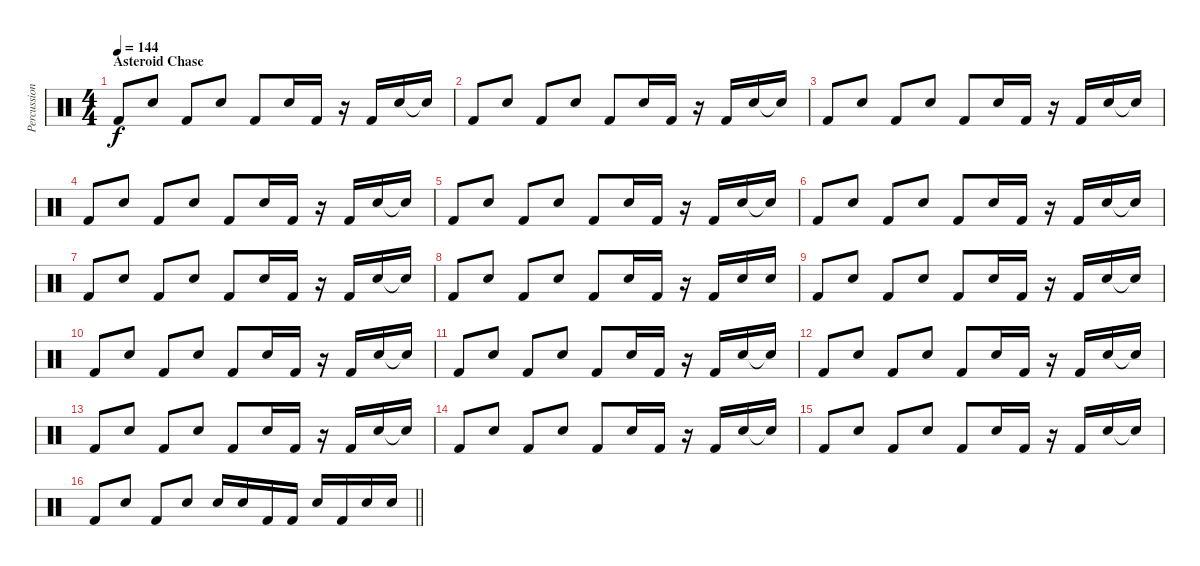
\track ("Percussions" "Percussion") {instrument percussion}
\staff {score}
\articulation defaults
\ts (4 4)
\section ("" "Asteroid Chase")
\tempo 144
\clef neutral
\ks c "Kick (hit) 2".8{dy f} "Electric Snare (hit)".8 "Kick (hit) 2".8 "Electric Snare (hit)".8 "Kick (hit) 2".8 "Electric Snare (hit)".16 "Kick (hit) 2".16
r.16 "Kick (hit) 2".16 "Electric Snare (hit)".16 "Snare (hit)"{t}.16 |
"Kick (hit) 2".8 "Electric Snare (hit)".8 "Kick (hit) 2".8 "Electric Snare (hit)".8 "Kick (hit) 2".8 "Electric Snare (hit)".16 "Kick (hit) 2".16 r.16 "Kick (hit) 2".16 "Electric Snare (hit)".16 "Snare (hit)"{t}.16 |
"Kick (hit) 2".8 "Electric Snare (hit)".8 "Kick (hit) 2".8 "Electric Snare (hit)".8 "Kick (hit) 2".8 "Electric Snare (hit)".16 "Kick (hit) 2".16 r.16 "Kick (hit) 2".16 "Electric Snare (hit)".16 "Snare (hit)"{t}.16 |
"Kick (hit) 2".8 "Electric Snare (hit)".8 "Kick (hit) 2".8 "Electric Snare (hit)".8 "Kick (hit) 2".8 "Electric Snare (hit)".16 "Kick (hit) 2".16 r.16 "Kick (hit) 2".16 "Electric Snare (hit)".16 "Snare (hit)"{t}.16 |
"Kick (hit) 2".8 "Electric Snare (hit)".8 "Kick (hit) 2".8 "Electric Snare (hit)".8 "Kick (hit) 2".8 "Electric Snare (hit)".16 "Kick (hit) 2".16 r.16 "Kick (hit) 2".16 "Electric Snare (hit)".16 "Snare (hit)"{t}.16 |
"Kick (hit) 2".8 "Electric Snare (hit)".8 "Kick (hit) 2".8 "Electric Snare (hit)".8 "Kick (hit) 2".8 "Electric Snare (hit)".16 "Kick (hit) 2".16 r.16 "Kick (hit) 2".16 "Electric Snare (hit)".16 "Snare (hit)"{t}.16 |
"Kick (hit) 2".8 "Electric Snare (hit)".8 "Kick (hit) 2".8 "Electric Snare (hit)".8 "Kick (hit) 2".8 "Electric Snare (hit)".16 "Kick (hit) 2".16 r.16 "Kick (hit) 2".16 "Electric Snare (hit)".16 "Snare (hit)"{t}.16 |
"Kick (hit) 2".8 "Electric Snare (hit)".8 "Kick (hit) 2".8 "Electric Snare (hit)".8 "Kick (hit) 2".8 "Electric Snare (hit)".16 "Kick (hit) 2".16 r.16 "Kick (hit) 2".16 "Electric Snare (hit)".16 "Electric Snare (hit)".16 |
"Kick (hit) 2".8 "Electric Snare (hit)".8 "Kick (hit) 2".8 "Electric Snare (hit)".8 "Kick (hit) 2".8 "Electric Snare (hit)".16 "Kick (hit) 2".16 r.16 "Kick (hit) 2".16 "Electric Snare (hit)".16 "Snare (hit)"{t}.16 |
"Kick (hit) 2".8 "Electric Snare (hit)".8 "Kick (hit) 2".8 "Electric Snare (hit)".8 "Kick (hit) 2".8 "Electric Snare (hit)".16 "Kick (hit) 2".16 r.16 "Kick (hit) 2".16 "Electric Snare (hit)".16 "Snare (hit)"{t}.16 |
"Kick (hit) 2".8 "Electric Snare (hit)".8 "Kick (hit) 2".8 "Electric Snare (hit)".8 "Kick (hit) 2".8 "Electric Snare (hit)".16 "Kick (hit) 2".16 r.16 "Kick (hit) 2".16 "Electric Snare (hit)".16 "Snare (hit)"{t}.16 |
"Kick (hit) 2".8 "Electric Snare (hit)".8 "Kick (hit) 2".8 "Electric Snare (hit)".8 "Kick (hit) 2".8 "Electric Snare (hit)".16 "Kick (hit) 2".16 r.16 "Kick (hit) 2".16 "Electric Snare (hit)".16 "Snare (hit)"{t}.16 |
"Kick (hit) 2".8 "Electric Snare (hit)".8 "Kick (hit) 2".8 "Electric Snare (hit)".8 "Kick (hit) 2".8 "Electric Snare (hit)".16 "Kick (hit) 2".16 r.16 "Kick (hit) 2".16 "Electric Snare (hit)".16 "Snare (hit)"{t}.16 |
"Kick (hit) 2".8 "Electric Snare (hit)".8 "Kick (hit) 2".8 "Electric Snare (hit)".8 "Kick (hit) 2".8 "Electric Snare (hit)".16 "Kick (hit) 2".16 r.16 "Kick (hit) 2".16 "Electric Snare (hit)".16 "Snare (hit)"{t}.16 |
"Kick (hit) 2".8 "Electric Snare (hit)".8 "Kick (hit) 2".8 "Electric Snare (hit)".8 "Kick (hit) 2".8 "Electric Snare (hit)".16 "Kick (hit) 2".16 r.16 "Kick (hit) 2".16 "Electric Snare (hit)".16 "Snare (hit)"{t}.16 |
\barLineRight lightlight "Kick (hit) 2".8 "Electric Snare (hit)".8 "Kick (hit) 2".8 "Electric Snare (hit)".8 "Electric Snare (hit)".16 "Electric Snare (hit)".16 "Kick (hit) 2".16 "Kick (hit) 2".16 "Electric Snare (hit)".16 "Kick (hit) 2".16 "Electric Snare (hit)".16 "Electric Snare (hit)".16
